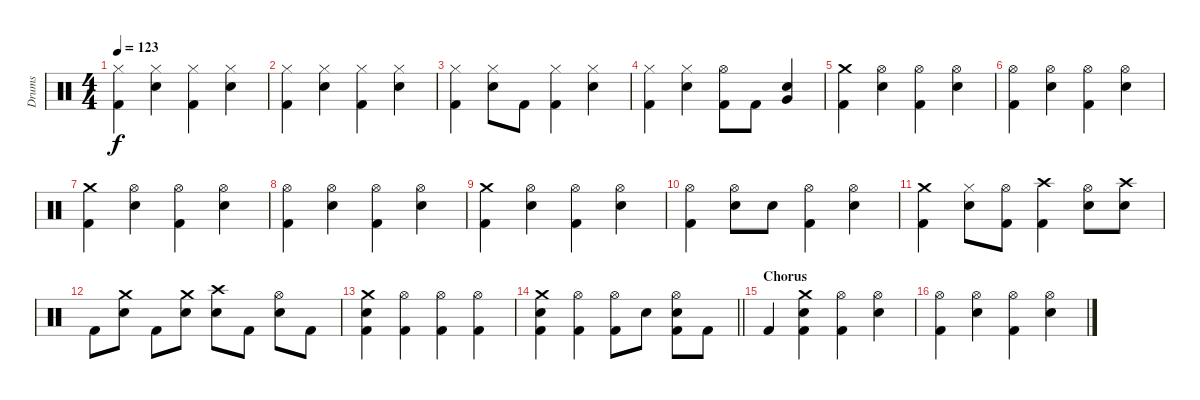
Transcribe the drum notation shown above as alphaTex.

\track ("Drums" "Drums") {instrument percussion}
\staff {score}
\articulation defaults
\ts (4 4)
\tempo 123
\clef neutral
\ks c
("Hi-Hat (closed)" "Kick (hit) 2").4{dy f} ("Hi-Hat (closed)" "Electric Snare (hit)").4 ("Hi-Hat (closed)" "Kick (hit) 2").4 ("Hi-Hat (closed)" "Electric Snare (hit)").4 |
("Hi-Hat (closed)" "Kick (hit) 2").4 ("Hi-Hat (closed)" "Electric Snare (hit)").4 ("Hi-Hat (closed)" "Kick (hit) 2").4 ("Hi-Hat (closed)" "Electric Snare (hit)").4 |
("Hi-Hat (closed)" "Kick (hit) 2").4 ("Hi-Hat (closed)" "Electric Snare (hit)").8 "Kick (hit) 2".8 ("Hi-Hat (closed)" "Kick (hit) 2").4 ("Hi-Hat (closed)" "Electric Snare (hit)").4 |
("Hi-Hat (closed)" "Kick (hit) 2").4 ("Hi-Hat (closed)" "Electric Snare (hit)").4 ("Hi-Hat (open)" "Kick (hit) 2").8 "Kick (hit) 2".8 ("Very Low Tom (hit)" "Electric Snare (hit)").4 |
("Crash medium (hit)" "Kick (hit) 2").4 ("Hi-Hat (open)" "Electric Snare (hit)").4 ("Hi-Hat (open)" "Kick (hit) 2").4 ("Hi-Hat (open)" "Electric Snare (hit)").4 |
("Hi-Hat (open)" "Kick (hit) 2").4 ("Hi-Hat (open)" "Electric Snare (hit)").4 ("Hi-Hat (open)" "Kick (hit) 2").4 ("Hi-Hat (open)" "Electric Snare (hit)").4 |
("Crash medium (hit)" "Kick (hit) 2").4 ("Hi-Hat (open)" "Electric Snare (hit)").4 ("Hi-Hat (open)" "Kick (hit) 2").4 ("Hi-Hat (open)" "Electric Snare (hit)").4 |
("Hi-Hat (open)" "Kick (hit) 2").4 ("Hi-Hat (open)" "Electric Snare (hit)").4 ("Hi-Hat (open)" "Kick (hit) 2").4 ("Hi-Hat (open)" "Electric Snare (hit)").4 |
("Crash medium (hit)" "Kick (hit) 2").4 ("Hi-Hat (open)" "Electric Snare (hit)").4 ("Hi-Hat (open)" "Kick (hit) 2").4 ("Hi-Hat (open)" "Electric Snare (hit)").4 |
("Hi-Hat (open)" "Kick (hit) 2").4 ("Hi-Hat (open)" "Electric Snare (hit)").8 "Electric Snare (hit)".8 ("Hi-Hat (open)" "Kick (hit) 2").4 ("Hi-Hat (open)" "Electric Snare (hit)").4 |
("Crash medium (hit)" "Kick (hit) 2").4 ("Hi-Hat (closed)" "Electric Snare (hit)").8 ("Hi-Hat (open)" "Kick (hit) 2").8 ("Crash high (hit)" "Kick (hit) 2").4 ("Hi-Hat (open)" "Electric Snare (hit)").8 ("Crash high (hit)" "Electric Snare (hit)").8 |
"Kick (hit) 2".8 ("Crash medium (hit)" "Electric Snare (hit)").8 "Kick (hit) 2".8 ("Crash medium (hit)" "Electric Snare (hit)").8 ("Crash high (hit)" "Electric Snare (hit)").8 "Kick (hit) 2".8 ("Hi-Hat (open)" "Electric Snare (hit)").8 "Kick (hit) 2".8 |
("Crash medium (hit)" "Electric Snare (hit)" "Kick (hit) 2").4 ("Hi-Hat (open)" "Kick (hit) 2").4 ("Hi-Hat (open)" "Kick (hit) 2").4 ("Hi-Hat (open)" "Kick (hit) 2").4 |
\barLineRight lightlight
("Crash medium (hit)" "Electric Snare (hit)" "Kick (hit) 2").4 ("Hi-Hat (open)" "Kick (hit) 2").4 ("Hi-Hat (open)" "Kick (hit) 2").8 "Electric Snare (hit)".8 ("Hi-Hat (open)" "Electric Snare (hit)" "Kick (hit) 2").8 "Kick (hit) 2".8 |
\section ("" "Chorus")
"Kick (hit) 2".4 ("Crash medium (hit)" "Electric Snare (hit)" "Kick (hit) 2").4 ("Hi-Hat (open)" "Kick (hit) 2").4 ("Hi-Hat (open)" "Electric Snare (hit)").4 |
("Hi-Hat (open)" "Kick (hit) 2").4 ("Hi-Hat (open)" "Electric Snare (hit)").4 ("Hi-Hat (open)" "Kick (hit) 2").4 ("Hi-Hat (open)" "Electric Snare (hit)").4
